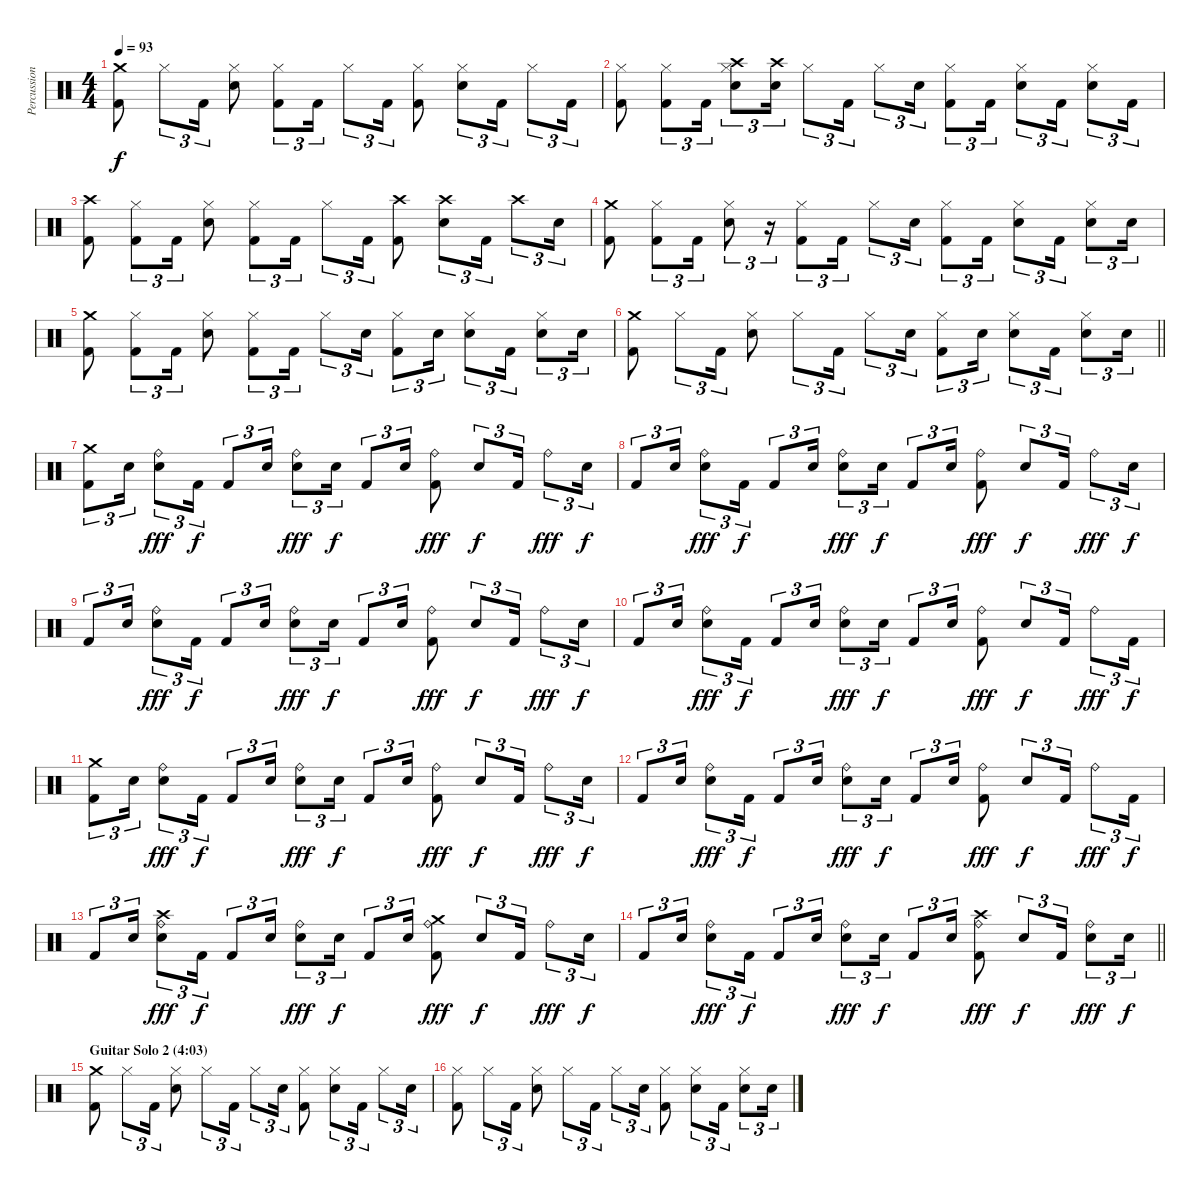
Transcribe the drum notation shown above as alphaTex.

\track ("Percussion" "Percussion") {instrument percussion}
\staff {score}
\articulation defaults
\ts (4 4)
\tempo 93
\clef neutral
\ks c
("Crash medium (hit)" "Kick (hit) 2").8{dy f} "Hi-Hat (closed)".8{tu (3 2)} "Kick (hit) 2".16{tu (3 2)} ("Hi-Hat (closed)" "Electric Snare (hit)").8 ("Hi-Hat (closed)" "Kick (hit) 2").8{tu (3 2)} "Kick (hit) 2".16{tu (3 2)} "Hi-Hat (closed)".8{tu (3 2)} "Kick (hit) 2".16{tu (3 2)} ("Hi-Hat (closed)" "Kick (hit) 2").8 ("Hi-Hat (closed)" "Electric Snare (hit)").8{tu (3 2)} "Kick (hit) 2".16{tu (3 2)} "Hi-Hat (closed)".8{tu (3 2)} "Kick (hit) 2".16{tu (3 2)} |
("Hi-Hat (closed)" "Kick (hit) 2").8 ("Hi-Hat (closed)" "Kick (hit) 2").8{tu (3 2)} "Kick (hit) 2".16{tu (3 2)} ("Crash high (hit)" "Hi-Hat (closed)" "Electric Snare (hit)").8{tu (3 2)} ("Crash high (hit)" "Electric Snare (hit)").16{tu (3 2)} "Hi-Hat (closed)".8{tu (3 2)} "Kick (hit) 2".16{tu (3 2)} "Hi-Hat (closed)".8{tu (3 2)} "Electric Snare (hit)".16{tu (3 2)} ("Hi-Hat (closed)" "Kick (hit) 2").8{tu (3 2)} "Kick (hit) 2".16{tu (3 2)} ("Hi-Hat (closed)" "Electric Snare (hit)").8{tu (3 2)} "Kick (hit) 2".16{tu (3 2)} ("Hi-Hat (closed)" "Electric Snare (hit)").8{tu (3 2)} "Kick (hit) 2".16{tu (3 2)} |
("Crash high (hit)" "Kick (hit) 2").8 ("Hi-Hat (closed)" "Kick (hit) 2").8{tu (3 2)} "Kick (hit) 2".16{tu (3 2)} ("Hi-Hat (closed)" "Electric Snare (hit)").8 ("Hi-Hat (closed)" "Kick (hit) 2").8{tu (3 2)} "Kick (hit) 2".16{tu (3 2)} "Hi-Hat (closed)".8{tu (3 2)} "Kick (hit) 2".16{tu (3 2)} ("Crash high (hit)" "Kick (hit) 2").8 ("Crash high (hit)" "Electric Snare (hit)").8{tu (3 2)} "Kick (hit) 2".16{tu (3 2)} "Crash high (hit)".8{tu (3 2)} "Electric Snare (hit)".16{tu (3 2)} |
("Crash medium (hit)" "Kick (hit) 2").8 ("Hi-Hat (closed)" "Kick (hit) 2").8{tu (3 2)} "Kick (hit) 2".16{tu (3 2)} ("Hi-Hat (closed)" "Electric Snare (hit)").8{tu (3 2)} r.16{tu (3 2)} ("Hi-Hat (closed)" "Kick (hit) 2").8{tu (3 2)} "Kick (hit) 2".16{tu (3 2)} "Hi-Hat (closed)".8{tu (3 2)} "Electric Snare (hit)".16{tu (3 2)} ("Hi-Hat (closed)" "Kick (hit) 2").8{tu (3 2)} "Kick (hit) 2".16{tu (3 2)} ("Hi-Hat (closed)" "Electric Snare (hit)").8{tu (3 2)} "Kick (hit) 2".16{tu (3 2)} ("Hi-Hat (closed)" "Electric Snare (hit)").8{tu (3 2)} "Electric Snare (hit)".16{tu (3 2)} |
("Crash medium (hit)" "Kick (hit) 2").8 ("Hi-Hat (closed)" "Kick (hit) 2").8{tu (3 2)} "Kick (hit) 2".16{tu (3 2)} ("Hi-Hat (closed)" "Electric Snare (hit)").8 ("Hi-Hat (closed)" "Kick (hit) 2").8{tu (3 2)} "Kick (hit) 2".16{tu (3 2)} "Hi-Hat (closed)".8{tu (3 2)} "Electric Snare (hit)".16{tu (3 2)} ("Hi-Hat (closed)" "Kick (hit) 2").8{tu (3 2)} "Electric Snare (hit)".16{tu (3 2)} ("Hi-Hat (closed)" "Electric Snare (hit)").8{tu (3 2)} "Kick (hit) 2".16{tu (3 2)} ("Hi-Hat (closed)" "Electric Snare (hit)").8{tu (3 2)} "Electric Snare (hit)".16{tu (3 2)} |
\barLineRight lightlight
("Crash medium (hit)" "Kick (hit) 2").8 "Hi-Hat (closed)".8{tu (3 2)} "Kick (hit) 2".16{tu (3 2)} ("Hi-Hat (closed)" "Electric Snare (hit)").8 "Hi-Hat (closed)".8{tu (3 2)} "Kick (hit) 2".16{tu (3 2)} "Hi-Hat (closed)".8{tu (3 2)} "Electric Snare (hit)".16{tu (3 2)} ("Hi-Hat (closed)" "Kick (hit) 2").8{tu (3 2)} "Electric Snare (hit)".16{tu (3 2)} ("Hi-Hat (closed)" "Electric Snare (hit)").8{tu (3 2)} "Kick (hit) 2".16{tu (3 2)} ("Hi-Hat (closed)" "Electric Snare (hit)").8{tu (3 2)} "Electric Snare (hit)".16{tu (3 2)} |
("Crash medium (hit)" "Kick (hit) 2").8{tu (3 2)} "Electric Snare (hit)".16{tu (3 2)} ("Ride (bell)" "Electric Snare (hit)").8{tu (3 2) dy fff} "Kick (hit) 2".16{tu (3 2) dy f} "Kick (hit) 2".8{tu (3 2)} "Electric Snare (hit)".16{tu (3 2)} ("Ride (bell)" "Electric Snare (hit)").8{tu (3 2) dy fff} "Electric Snare (hit)".16{tu (3 2) dy f} "Kick (hit) 2".8{tu (3 2)} "Electric Snare (hit)".16{tu (3 2)} ("Ride (bell)" "Kick (hit) 2").8{dy fff} "Electric Snare (hit)".8{tu (3 2) dy f} "Kick (hit) 2".16{tu (3 2)} "Ride (bell)".8{tu (3 2) dy fff} "Electric Snare (hit)".16{tu (3 2) dy f} |
"Kick (hit) 2".8{tu (3 2)} "Electric Snare (hit)".16{tu (3 2)} ("Ride (bell)" "Electric Snare (hit)").8{tu (3 2) dy fff} "Kick (hit) 2".16{tu (3 2) dy f} "Kick (hit) 2".8{tu (3 2)} "Electric Snare (hit)".16{tu (3 2)} ("Ride (bell)" "Electric Snare (hit)").8{tu (3 2) dy fff} "Electric Snare (hit)".16{tu (3 2) dy f} "Kick (hit) 2".8{tu (3 2)} "Electric Snare (hit)".16{tu (3 2)} ("Ride (bell)" "Kick (hit) 2").8{dy fff} "Electric Snare (hit)".8{tu (3 2) dy f} "Kick (hit) 2".16{tu (3 2)} "Ride (bell)".8{tu (3 2) dy fff} "Electric Snare (hit)".16{tu (3 2) dy f} |
"Kick (hit) 2".8{tu (3 2)} "Electric Snare (hit)".16{tu (3 2)} ("Ride (bell)" "Electric Snare (hit)").8{tu (3 2) dy fff} "Kick (hit) 2".16{tu (3 2) dy f} "Kick (hit) 2".8{tu (3 2)} "Electric Snare (hit)".16{tu (3 2)} ("Ride (bell)" "Electric Snare (hit)").8{tu (3 2) dy fff} "Electric Snare (hit)".16{tu (3 2) dy f} "Kick (hit) 2".8{tu (3 2)} "Electric Snare (hit)".16{tu (3 2)} ("Ride (bell)" "Kick (hit) 2").8{dy fff} "Electric Snare (hit)".8{tu (3 2) dy f} "Kick (hit) 2".16{tu (3 2)} "Ride (bell)".8{tu (3 2) dy fff} "Electric Snare (hit)".16{tu (3 2) dy f} |
"Kick (hit) 2".8{tu (3 2)} "Electric Snare (hit)".16{tu (3 2)} ("Ride (bell)" "Electric Snare (hit)").8{tu (3 2) dy fff} "Kick (hit) 2".16{tu (3 2) dy f} "Kick (hit) 2".8{tu (3 2)} "Electric Snare (hit)".16{tu (3 2)} ("Ride (bell)" "Electric Snare (hit)").8{tu (3 2) dy fff} "Electric Snare (hit)".16{tu (3 2) dy f} "Kick (hit) 2".8{tu (3 2)} "Electric Snare (hit)".16{tu (3 2)} ("Ride (bell)" "Kick (hit) 2").8{dy fff} "Electric Snare (hit)".8{tu (3 2) dy f} "Kick (hit) 2".16{tu (3 2)} "Ride (bell)".8{tu (3 2) dy fff} "Kick (hit) 2".16{tu (3 2) dy f} |
("Crash medium (hit)" "Kick (hit) 2").8{tu (3 2)} "Electric Snare (hit)".16{tu (3 2)} ("Ride (bell)" "Electric Snare (hit)").8{tu (3 2) dy fff} "Kick (hit) 2".16{tu (3 2) dy f} "Kick (hit) 2".8{tu (3 2)} "Electric Snare (hit)".16{tu (3 2)} ("Ride (bell)" "Electric Snare (hit)").8{tu (3 2) dy fff} "Electric Snare (hit)".16{tu (3 2) dy f} "Kick (hit) 2".8{tu (3 2)} "Electric Snare (hit)".16{tu (3 2)} ("Ride (bell)" "Kick (hit) 2").8{dy fff} "Electric Snare (hit)".8{tu (3 2) dy f} "Kick (hit) 2".16{tu (3 2)} "Ride (bell)".8{tu (3 2) dy fff} "Electric Snare (hit)".16{tu (3 2) dy f} |
"Kick (hit) 2".8{tu (3 2)} "Electric Snare (hit)".16{tu (3 2)} ("Ride (bell)" "Electric Snare (hit)").8{tu (3 2) dy fff} "Kick (hit) 2".16{tu (3 2) dy f} "Kick (hit) 2".8{tu (3 2)} "Electric Snare (hit)".16{tu (3 2)} ("Ride (bell)" "Electric Snare (hit)").8{tu (3 2) dy fff} "Electric Snare (hit)".16{tu (3 2) dy f} "Kick (hit) 2".8{tu (3 2)} "Electric Snare (hit)".16{tu (3 2)} ("Ride (bell)" "Kick (hit) 2").8{dy fff} "Electric Snare (hit)".8{tu (3 2) dy f} "Kick (hit) 2".16{tu (3 2)} "Ride (bell)".8{tu (3 2) dy fff} "Kick (hit) 2".16{tu (3 2) dy f} |
"Kick (hit) 2".8{tu (3 2)} "Electric Snare (hit)".16{tu (3 2)} ("Crash high (hit)" "Ride (bell)" "Electric Snare (hit)").8{tu (3 2) dy fff} "Kick (hit) 2".16{tu (3 2) dy f} "Kick (hit) 2".8{tu (3 2)} "Electric Snare (hit)".16{tu (3 2)} ("Ride (bell)" "Electric Snare (hit)").8{tu (3 2) dy fff} "Electric Snare (hit)".16{tu (3 2) dy f} "Kick (hit) 2".8{tu (3 2)} "Electric Snare (hit)".16{tu (3 2)} ("Crash medium (hit)" "Ride (bell)" "Kick (hit) 2").8{dy fff} "Electric Snare (hit)".8{tu (3 2) dy f} "Kick (hit) 2".16{tu (3 2)} "Ride (bell)".8{tu (3 2) dy fff} "Electric Snare (hit)".16{tu (3 2) dy f} |
\barLineRight lightlight "Kick (hit) 2".8{tu (3 2)} "Electric Snare (hit)".16{tu (3 2)}
("Ride (bell)" "Electric Snare (hit)").8{tu (3 2) dy fff} "Kick (hit) 2".16{tu (3 2) dy f} "Kick (hit) 2".8{tu (3 2)} "Electric Snare (hit)".16{tu (3 2)} ("Ride (bell)" "Electric Snare (hit)").8{tu (3 2) dy fff} "Electric Snare (hit)".16{tu (3 2) dy f} "Kick (hit) 2".8{tu (3 2)} "Electric Snare (hit)".16{tu (3 2)} ("Crash high (hit)" "Ride (bell)" "Kick (hit) 2").8{dy fff} "Electric Snare (hit)".8{tu (3 2) dy f} "Kick (hit) 2".16{tu (3 2)} ("Ride (bell)" "Electric Snare (hit)").8{tu (3 2) dy fff} "Electric Snare (hit)".16{tu (3 2) dy f} |
\section ("" "Guitar Solo 2 (4:03)")
("Crash medium (hit)" "Kick (hit) 2").8 "Hi-Hat (closed)".8{tu (3 2)} "Kick (hit) 2".16{tu (3 2)} ("Hi-Hat (closed)" "Electric Snare (hit)").8 "Hi-Hat (closed)".8{tu (3 2)} "Kick (hit) 2".16{tu (3 2)} "Hi-Hat (closed)".8{tu (3 2)} "Electric Snare (hit)".16{tu (3 2)} ("Hi-Hat (closed)" "Kick (hit) 2").8 ("Hi-Hat (closed)" "Electric Snare (hit)").8{tu (3 2)} "Kick (hit) 2".16{tu (3 2)} "Hi-Hat (closed)".8{tu (3 2)} "Electric Snare (hit)".16{tu (3 2)} |
("Hi-Hat (closed)" "Kick (hit) 2").8 "Hi-Hat (closed)".8{tu (3 2)} "Kick (hit) 2".16{tu (3 2)} ("Hi-Hat (closed)" "Electric Snare (hit)").8 "Hi-Hat (closed)".8{tu (3 2)} "Kick (hit) 2".16{tu (3 2)} "Hi-Hat (closed)".8{tu (3 2)} "Electric Snare (hit)".16{tu (3 2)} ("Hi-Hat (closed)" "Kick (hit) 2").8 ("Hi-Hat (closed)" "Electric Snare (hit)").8{tu (3 2)} "Kick (hit) 2".16{tu (3 2)} ("Hi-Hat (closed)" "Electric Snare (hit)").8{tu (3 2)} "Electric Snare (hit)".16{tu (3 2)}
